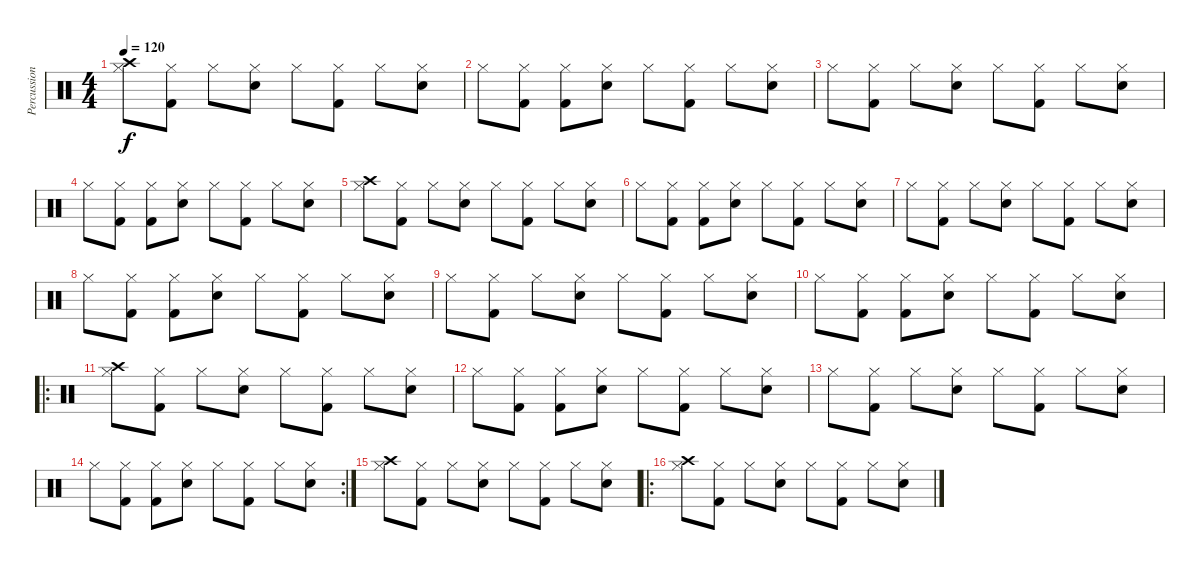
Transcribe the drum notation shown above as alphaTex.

\track ("Percussion" "Percussion") {instrument percussion}
\staff {score}
\articulation defaults
\ts (4 4)
\tempo 120
\clef neutral
\ks c
("Hi-Hat (closed)" "Crash high (hit)").8{dy f} ("Kick (hit) 2" "Hi-Hat (closed)").8 "Hi-Hat (closed)".8 ("Electric Snare (hit)" "Hi-Hat (closed)").8 "Hi-Hat (closed)".8 ("Kick (hit) 2" "Hi-Hat (closed)").8 "Hi-Hat (closed)".8 ("Electric Snare (hit)" "Hi-Hat (closed)").8 |
"Hi-Hat (closed)".8 ("Kick (hit) 2" "Hi-Hat (closed)").8 ("Hi-Hat (closed)" "Kick (hit) 2").8 ("Electric Snare (hit)" "Hi-Hat (closed)").8 "Hi-Hat (closed)".8 ("Kick (hit) 2" "Hi-Hat (closed)").8 "Hi-Hat (closed)".8 ("Electric Snare (hit)" "Hi-Hat (closed)").8 |
"Hi-Hat (closed)".8 ("Kick (hit) 2" "Hi-Hat (closed)").8 "Hi-Hat (closed)".8 ("Electric Snare (hit)" "Hi-Hat (closed)").8 "Hi-Hat (closed)".8 ("Kick (hit) 2" "Hi-Hat (closed)").8 "Hi-Hat (closed)".8 ("Electric Snare (hit)" "Hi-Hat (closed)").8 |
"Hi-Hat (closed)".8 ("Kick (hit) 2" "Hi-Hat (closed)").8 ("Hi-Hat (closed)" "Kick (hit) 2").8 ("Electric Snare (hit)" "Hi-Hat (closed)").8 "Hi-Hat (closed)".8 ("Kick (hit) 2" "Hi-Hat (closed)").8 "Hi-Hat (closed)".8 ("Electric Snare (hit)" "Hi-Hat (closed)").8 |
("Hi-Hat (closed)" "Crash high (hit)").8 ("Kick (hit) 2" "Hi-Hat (closed)").8 "Hi-Hat (closed)".8 ("Electric Snare (hit)" "Hi-Hat (closed)").8 "Hi-Hat (closed)".8 ("Kick (hit) 2" "Hi-Hat (closed)").8 "Hi-Hat (closed)".8 ("Electric Snare (hit)" "Hi-Hat (closed)").8 |
"Hi-Hat (closed)".8 ("Kick (hit) 2" "Hi-Hat (closed)").8 ("Hi-Hat (closed)" "Kick (hit) 2").8 ("Electric Snare (hit)" "Hi-Hat (closed)").8 "Hi-Hat (closed)".8 ("Kick (hit) 2" "Hi-Hat (closed)").8 "Hi-Hat (closed)".8 ("Electric Snare (hit)" "Hi-Hat (closed)").8 |
"Hi-Hat (closed)".8 ("Kick (hit) 2" "Hi-Hat (closed)").8 "Hi-Hat (closed)".8 ("Electric Snare (hit)" "Hi-Hat (closed)").8 "Hi-Hat (closed)".8 ("Kick (hit) 2" "Hi-Hat (closed)").8 "Hi-Hat (closed)".8 ("Electric Snare (hit)" "Hi-Hat (closed)").8 |
"Hi-Hat (closed)".8 ("Kick (hit) 2" "Hi-Hat (closed)").8 ("Hi-Hat (closed)" "Kick (hit) 2").8 ("Electric Snare (hit)" "Hi-Hat (closed)").8 "Hi-Hat (closed)".8 ("Kick (hit) 2" "Hi-Hat (closed)").8 "Hi-Hat (closed)".8 ("Electric Snare (hit)" "Hi-Hat (closed)").8 |
"Hi-Hat (closed)".8 ("Kick (hit) 2" "Hi-Hat (closed)").8 "Hi-Hat (closed)".8 ("Electric Snare (hit)" "Hi-Hat (closed)").8 "Hi-Hat (closed)".8 ("Kick (hit) 2" "Hi-Hat (closed)").8 "Hi-Hat (closed)".8 ("Electric Snare (hit)" "Hi-Hat (closed)").8 |
"Hi-Hat (closed)".8 ("Kick (hit) 2" "Hi-Hat (closed)").8 ("Hi-Hat (closed)" "Kick (hit) 2").8 ("Electric Snare (hit)" "Hi-Hat (closed)").8 "Hi-Hat (closed)".8 ("Kick (hit) 2" "Hi-Hat (closed)").8 "Hi-Hat (closed)".8 ("Electric Snare (hit)" "Hi-Hat (closed)").8 |
\ro
("Hi-Hat (closed)" "Crash high (hit)").8 ("Kick (hit) 2" "Hi-Hat (closed)").8 "Hi-Hat (closed)".8 ("Electric Snare (hit)" "Hi-Hat (closed)").8 "Hi-Hat (closed)".8 ("Kick (hit) 2" "Hi-Hat (closed)").8 "Hi-Hat (closed)".8 ("Electric Snare (hit)" "Hi-Hat (closed)").8 |
"Hi-Hat (closed)".8 ("Kick (hit) 2" "Hi-Hat (closed)").8 ("Hi-Hat (closed)" "Kick (hit) 2").8 ("Electric Snare (hit)" "Hi-Hat (closed)").8 "Hi-Hat (closed)".8 ("Kick (hit) 2" "Hi-Hat (closed)").8 "Hi-Hat (closed)".8 ("Electric Snare (hit)" "Hi-Hat (closed)").8 |
"Hi-Hat (closed)".8 ("Kick (hit) 2" "Hi-Hat (closed)").8 "Hi-Hat (closed)".8 ("Electric Snare (hit)" "Hi-Hat (closed)").8 "Hi-Hat (closed)".8 ("Kick (hit) 2" "Hi-Hat (closed)").8 "Hi-Hat (closed)".8 ("Electric Snare (hit)" "Hi-Hat (closed)").8 |
\rc 2 "Hi-Hat (closed)".8
("Kick (hit) 2" "Hi-Hat (closed)").8 ("Hi-Hat (closed)" "Kick (hit) 2").8 ("Electric Snare (hit)" "Hi-Hat (closed)").8 "Hi-Hat (closed)".8 ("Kick (hit) 2" "Hi-Hat (closed)").8 "Hi-Hat (closed)".8 ("Electric Snare (hit)" "Hi-Hat (closed)").8 |
("Hi-Hat (closed)" "Crash high (hit)").8 ("Kick (hit) 2" "Hi-Hat (closed)").8 "Hi-Hat (closed)".8 ("Electric Snare (hit)" "Hi-Hat (closed)").8 "Hi-Hat (closed)".8 ("Kick (hit) 2" "Hi-Hat (closed)").8 "Hi-Hat (closed)".8 ("Electric Snare (hit)" "Hi-Hat (closed)").8 |
\ro
("Hi-Hat (closed)" "Crash high (hit)").8 ("Kick (hit) 2" "Hi-Hat (closed)").8 "Hi-Hat (closed)".8 ("Electric Snare (hit)" "Hi-Hat (closed)").8 "Hi-Hat (closed)".8 ("Kick (hit) 2" "Hi-Hat (closed)").8 "Hi-Hat (closed)".8 ("Electric Snare (hit)" "Hi-Hat (closed)").8
